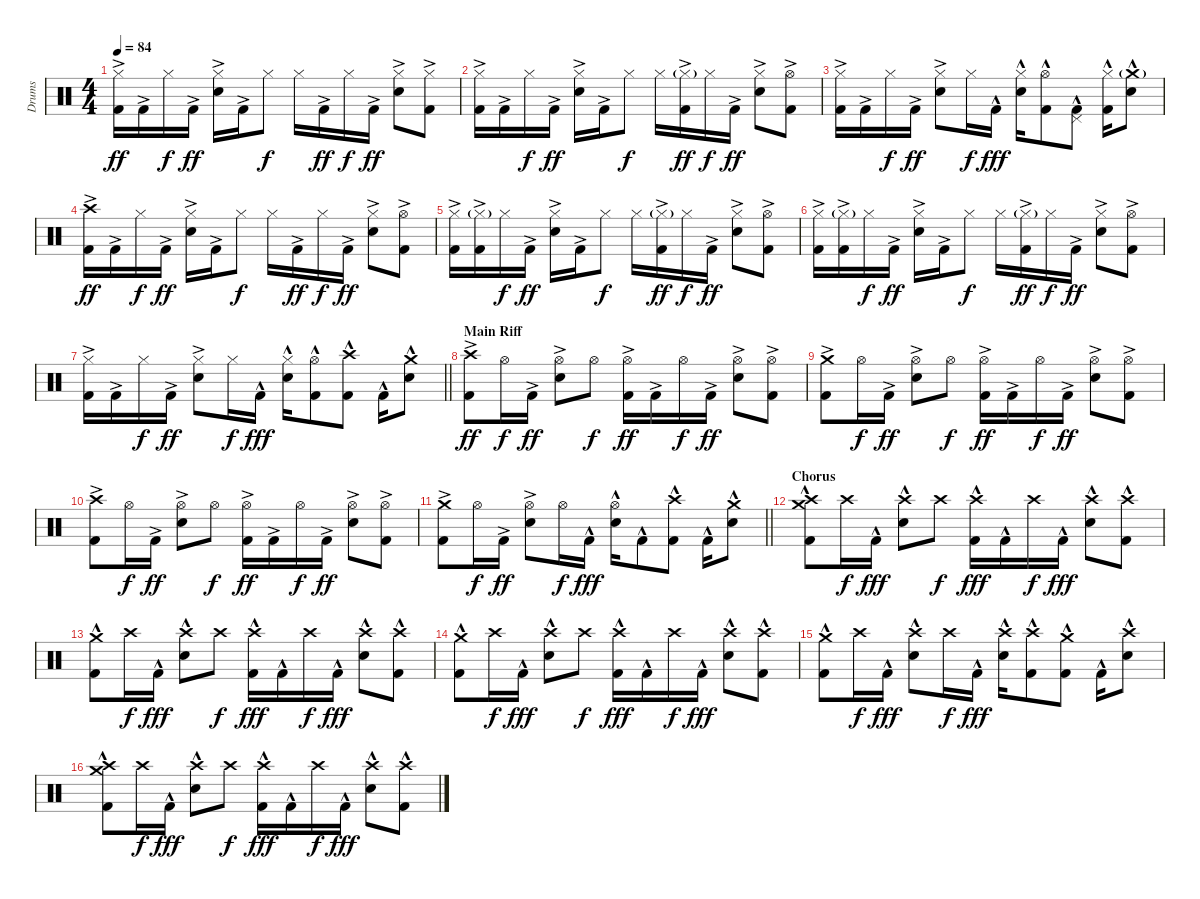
\track ("Drums" "Drums") {instrument percussion}
\staff {score}
\articulation defaults
\ts (4 4)
\tempo 84
\clef neutral
\ks c
("Hi-Hat (closed)" "Kick (hit) 2"{ac}).16{dy ff} "Kick (hit) 2"{ac}.16 "Hi-Hat (closed)".16{dy f} "Kick (hit) 2"{ac}.16{dy ff} ("Hi-Hat (closed)" "Electric Snare (hit)"{ac}).16 "Kick (hit) 2"{ac}.16 "Hi-Hat (closed)".8{dy f} "Hi-Hat (closed)".16 "Kick (hit) 2"{ac}.16{dy ff} "Hi-Hat (closed)".16{dy f} "Kick (hit) 2"{ac}.16{dy ff} ("Hi-Hat (closed)" "Electric Snare (hit)"{ac}).8 ("Hi-Hat (closed)" "Kick (hit) 2"{ac}).8 |
("Hi-Hat (closed)" "Kick (hit) 2"{ac}).16 "Kick (hit) 2"{ac}.16 "Hi-Hat (closed)".16{dy f} "Kick (hit) 2"{ac}.16{dy ff} ("Hi-Hat (closed)" "Electric Snare (hit)"{ac}).16 "Kick (hit) 2"{ac}.16 "Hi-Hat (closed)".8{dy f} "Hi-Hat (closed)".16 ("Hi-Hat (closed)"{g} "Kick (hit) 2"{ac}).16{dy ff} "Hi-Hat (closed)".16{dy f} "Kick (hit) 2"{ac}.16{dy ff} ("Hi-Hat (closed)" "Electric Snare (hit)"{ac}).8 ("Hi-Hat (open)" "Kick (hit) 2"{ac}).8 |
("Hi-Hat (closed)" "Kick (hit) 2"{ac}).16 "Kick (hit) 2"{ac}.16 "Hi-Hat (closed)".16{dy f} "Kick (hit) 2"{ac}.16{dy ff} ("Hi-Hat (closed)" "Electric Snare (hit)"{ac}).8 "Hi-Hat (closed)".16{dy f} "Kick (hit) 2"{hac}.16{dy fff} ("Hi-Hat (closed)" "Electric Snare (hit)"{hac}).16 ("Hi-Hat (open)" "Kick (hit) 2"{hac}).8 ("Pedal Hi-Hat (hit)" "Kick (hit) 2"{hac}).8 ("Hi-Hat (closed)" "Kick (hit) 2"{hac}).16 ("Crash medium (hit)"{g} "Electric Snare (hit)"{hac}).8 |
("Crash high (hit)" "Kick (hit) 2"{ac}).16{dy ff} "Kick (hit) 2"{ac}.16 "Hi-Hat (closed)".16{dy f} "Kick (hit) 2"{ac}.16{dy ff} ("Hi-Hat (closed)" "Electric Snare (hit)"{ac}).16 "Kick (hit) 2"{ac}.16 "Hi-Hat (closed)".8{dy f} "Hi-Hat (closed)".16 "Kick (hit) 2"{ac}.16{dy ff} "Hi-Hat (closed)".16{dy f} "Kick (hit) 2"{ac}.16{dy ff} ("Hi-Hat (closed)" "Electric Snare (hit)"{ac}).8 ("Hi-Hat (open)" "Kick (hit) 2"{ac}).8 |
("Hi-Hat (closed)" "Kick (hit) 2"{ac}).16 ("Hi-Hat (closed)"{g} "Kick (hit) 2"{ac}).16 "Hi-Hat (closed)".16{dy f} "Kick (hit) 2"{ac}.16{dy ff} ("Hi-Hat (closed)" "Electric Snare (hit)"{ac}).16 "Kick (hit) 2"{ac}.16 "Hi-Hat (closed)".8{dy f} "Hi-Hat (closed)".16 ("Hi-Hat (closed)"{g} "Kick (hit) 2"{ac}).16{dy ff} "Hi-Hat (closed)".16{dy f} "Kick (hit) 2"{ac}.16{dy ff} ("Hi-Hat (closed)" "Electric Snare (hit)"{ac}).8 ("Hi-Hat (open)" "Kick (hit) 2"{ac}).8 |
("Hi-Hat (closed)" "Kick (hit) 2"{ac}).16 ("Hi-Hat (closed)"{g} "Kick (hit) 2"{ac}).16 "Hi-Hat (closed)".16{dy f} "Kick (hit) 2"{ac}.16{dy ff} ("Hi-Hat (closed)" "Electric Snare (hit)"{ac}).16 "Kick (hit) 2"{ac}.16 "Hi-Hat (closed)".8{dy f} "Hi-Hat (closed)".16 ("Hi-Hat (closed)"{g} "Kick (hit) 2"{ac}).16{dy ff} "Hi-Hat (closed)".16{dy f} "Kick (hit) 2"{ac}.16{dy ff} ("Hi-Hat (closed)" "Electric Snare (hit)"{ac}).8 ("Hi-Hat (open)" "Kick (hit) 2"{ac}).8 |
\barLineRight lightlight
("Hi-Hat (closed)" "Kick (hit) 2"{ac}).16 "Kick (hit) 2"{ac}.16 "Hi-Hat (closed)".16{dy f} "Kick (hit) 2"{ac}.16{dy ff} ("Hi-Hat (closed)" "Electric Snare (hit)"{ac}).8 "Hi-Hat (closed)".16{dy f} "Kick (hit) 2"{hac}.16{dy fff} ("Hi-Hat (closed)" "Electric Snare (hit)"{hac}).16 ("Hi-Hat (open)" "Kick (hit) 2"{hac}).8 ("Crash high (hit)" "Kick (hit) 2"{hac}).8 "Kick (hit) 2"{hac}.16 ("Crash medium (hit)" "Electric Snare (hit)"{hac}).8 |
\section ("" "Main Riff")
("Crash high (hit)" "Kick (hit) 2"{ac}).8{dy ff} "Hi-Hat (open)".16{dy f} "Kick (hit) 2"{ac}.16{dy ff} ("Hi-Hat (open)" "Electric Snare (hit)"{ac}).8 "Hi-Hat (open)".8{dy f} ("Hi-Hat (open)" "Kick (hit) 2"{ac}).16{dy ff} "Kick (hit) 2"{ac}.16 "Hi-Hat (open)".16{dy f} "Kick (hit) 2"{ac}.16{dy ff} ("Hi-Hat (open)" "Electric Snare (hit)"{ac}).8 ("Hi-Hat (open)" "Kick (hit) 2"{ac}).8 |
("Crash medium (hit)" "Kick (hit) 2"{ac}).8 "Hi-Hat (open)".16{dy f} "Kick (hit) 2"{ac}.16{dy ff} ("Hi-Hat (open)" "Electric Snare (hit)"{ac}).8 "Hi-Hat (open)".8{dy f} ("Hi-Hat (open)" "Kick (hit) 2"{ac}).16{dy ff} "Kick (hit) 2"{ac}.16 "Hi-Hat (open)".16{dy f} "Kick (hit) 2"{ac}.16{dy ff} ("Hi-Hat (open)" "Electric Snare (hit)"{ac}).8 ("Hi-Hat (open)" "Kick (hit) 2"{ac}).8 |
("Crash high (hit)" "Kick (hit) 2"{ac}).8 "Hi-Hat (open)".16{dy f} "Kick (hit) 2"{ac}.16{dy ff} ("Hi-Hat (open)" "Electric Snare (hit)"{ac}).8 "Hi-Hat (open)".8{dy f} ("Hi-Hat (open)" "Kick (hit) 2"{ac}).16{dy ff} "Kick (hit) 2"{ac}.16 "Hi-Hat (open)".16{dy f} "Kick (hit) 2"{ac}.16{dy ff} ("Hi-Hat (open)" "Electric Snare (hit)"{ac}).8 ("Hi-Hat (open)" "Kick (hit) 2"{ac}).8 |
\barLineRight lightlight
("Crash medium (hit)" "Kick (hit) 2"{ac}).8 "Hi-Hat (open)".16{dy f} "Kick (hit) 2"{ac}.16{dy ff} ("Hi-Hat (open)" "Electric Snare (hit)"{ac}).8 "Hi-Hat (open)".16{dy f} "Kick (hit) 2"{hac}.16{dy fff} ("Hi-Hat (open)" "Electric Snare (hit)"{hac}).16 "Kick (hit) 2"{hac}.8 ("Crash high (hit)" "Kick (hit) 2"{hac}).8 "Kick (hit) 2"{hac}.16 ("Crash medium (hit)" "Electric Snare (hit)"{hac}).8 |
\section ("" "Chorus")
("Crash high (hit)" "Crash medium (hit)" "Kick (hit) 2"{hac}).8 "Crash high (hit)".16{dy f} "Kick (hit) 2"{hac}.16{dy fff} ("Crash high (hit)" "Electric Snare (hit)"{hac}).8 "Crash high (hit)".8{dy f} ("Crash high (hit)" "Kick (hit) 2"{hac}).16{dy fff} "Kick (hit) 2"{hac}.16 "Crash high (hit)".16{dy f} "Kick (hit) 2"{hac}.16{dy fff} ("Crash high (hit)" "Electric Snare (hit)"{hac}).8 ("Crash high (hit)" "Kick (hit) 2"{hac}).8 |
("Crash medium (hit)" "Kick (hit) 2"{hac}).8 "Crash high (hit)".16{dy f} "Kick (hit) 2"{hac}.16{dy fff} ("Crash high (hit)" "Electric Snare (hit)"{hac}).8 "Crash high (hit)".8{dy f} ("Crash high (hit)" "Kick (hit) 2"{hac}).16{dy fff} "Kick (hit) 2"{hac}.16 "Crash high (hit)".16{dy f} "Kick (hit) 2"{hac}.16{dy fff} ("Crash high (hit)" "Electric Snare (hit)"{hac}).8 ("Crash high (hit)" "Kick (hit) 2"{hac}).8 |
("Crash medium (hit)" "Kick (hit) 2"{hac}).8 "Crash high (hit)".16{dy f} "Kick (hit) 2"{hac}.16{dy fff} ("Crash high (hit)" "Electric Snare (hit)"{hac}).8 "Crash high (hit)".8{dy f} ("Crash high (hit)" "Kick (hit) 2"{hac}).16{dy fff} "Kick (hit) 2"{hac}.16 "Crash high (hit)".16{dy f} "Kick (hit) 2"{hac}.16{dy fff} ("Crash high (hit)" "Electric Snare (hit)"{hac}).8 ("Crash high (hit)" "Kick (hit) 2"{hac}).8 |
("Crash medium (hit)" "Kick (hit) 2"{hac}).8 "Crash high (hit)".16{dy f} "Kick (hit) 2"{hac}.16{dy fff} ("Crash high (hit)" "Electric Snare (hit)"{hac}).8 "Crash high (hit)".16{dy f} "Kick (hit) 2"{hac}.16{dy fff} ("Crash high (hit)" "Electric Snare (hit)"{hac}).16 ("Crash high (hit)" "Kick (hit) 2"{hac}).8 ("Crash medium (hit)" "Kick (hit) 2"{hac}).8 "Kick (hit) 2"{hac}.16 ("Crash high (hit)" "Electric Snare (hit)"{hac}).8 |
("Crash high (hit)" "Crash medium (hit)" "Kick (hit) 2"{hac}).8 "Crash high (hit)".16{dy f} "Kick (hit) 2"{hac}.16{dy fff} ("Crash high (hit)" "Electric Snare (hit)"{hac}).8 "Crash high (hit)".8{dy f} ("Crash high (hit)" "Kick (hit) 2"{hac}).16{dy fff} "Kick (hit) 2"{hac}.16 "Crash high (hit)".16{dy f} "Kick (hit) 2"{hac}.16{dy fff} ("Crash high (hit)" "Electric Snare (hit)"{hac}).8 ("Crash high (hit)" "Kick (hit) 2"{hac}).8
